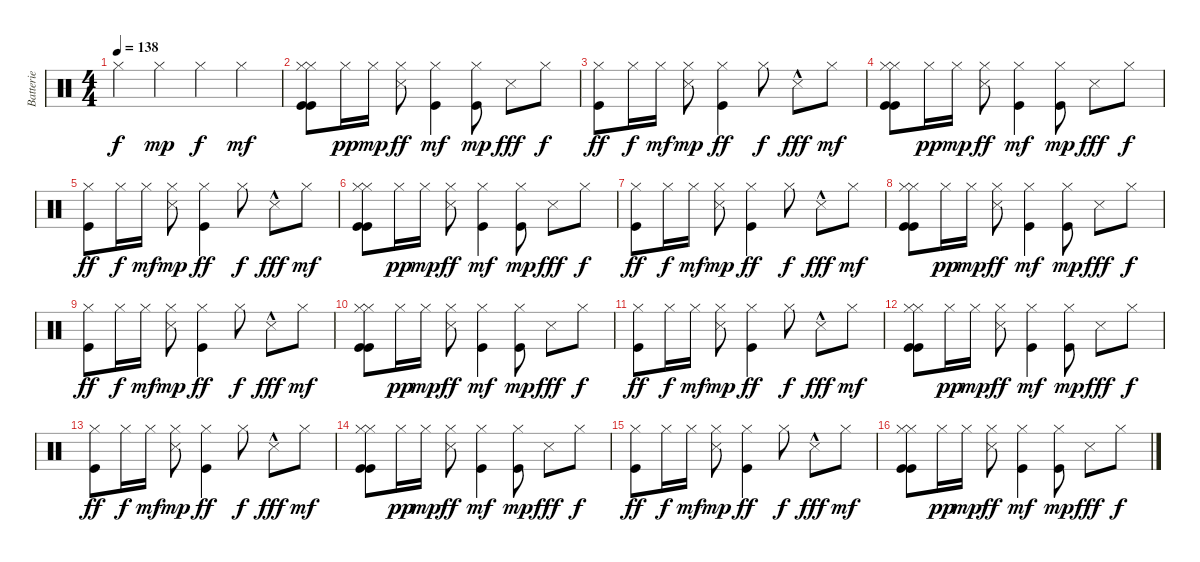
\track ("Batterie" "Batterie") {instrument percussion}
\staff {score}
\articulation defaults
\ts (4 4)
\tempo 138
\clef neutral
\ks c "Hi-Hat (closed)".4{dy f} "Hi-Hat (closed)".4{dy mp} "Hi-Hat (closed)".4{dy f} "Hi-Hat (closed)".4{dy mf}
|
("Kick (hit)" "Kick (hit)" "Hi-Hat (closed)" "Hi-Hat (closed)").8 "Hi-Hat (closed)".16{dy pp} "Hi-Hat (closed)".16{dy mp} ("Snare (side stick) 3" "Hi-Hat (closed)").8{dy ff} ("Kick (hit)" "Hi-Hat (closed)").4{dy mf} ("Kick (hit)" "Hi-Hat (closed)").8{dy mp} "Snare (side stick) 3".8{dy fff} "Hi-Hat (closed)".8{dy f} |
("Kick (hit)" "Hi-Hat (closed)").8{dy ff} "Hi-Hat (closed)".16{dy f} "Hi-Hat (closed)".16{dy mf} ("Snare (side stick) 3" "Hi-Hat (closed)").8{dy mp} ("Kick (hit)" "Hi-Hat (closed)").4{dy ff} "Hi-Hat (closed)".8{dy f} "Snare (side stick) 3"{hac}.8{dy fff} "Hi-Hat (closed)".8{dy mf} |
("Kick (hit)" "Kick (hit)" "Hi-Hat (closed)" "Hi-Hat (closed)").8 "Hi-Hat (closed)".16{dy pp} "Hi-Hat (closed)".16{dy mp} ("Snare (side stick) 3" "Hi-Hat (closed)").8{dy ff} ("Kick (hit)" "Hi-Hat (closed)").4{dy mf} ("Kick (hit)" "Hi-Hat (closed)").8{dy mp} "Snare (side stick) 3".8{dy fff} "Hi-Hat (closed)".8{dy f} |
("Kick (hit)" "Hi-Hat (closed)").8{dy ff} "Hi-Hat (closed)".16{dy f} "Hi-Hat (closed)".16{dy mf} ("Snare (side stick) 3" "Hi-Hat (closed)").8{dy mp} ("Kick (hit)" "Hi-Hat (closed)").4{dy ff} "Hi-Hat (closed)".8{dy f} "Snare (side stick) 3"{hac}.8{dy fff} "Hi-Hat (closed)".8{dy mf} |
("Kick (hit)" "Kick (hit)" "Hi-Hat (closed)" "Hi-Hat (closed)").8 "Hi-Hat (closed)".16{dy pp} "Hi-Hat (closed)".16{dy mp} ("Snare (side stick) 3" "Hi-Hat (closed)").8{dy ff} ("Kick (hit)" "Hi-Hat (closed)").4{dy mf} ("Kick (hit)" "Hi-Hat (closed)").8{dy mp} "Snare (side stick) 3".8{dy fff} "Hi-Hat (closed)".8{dy f} |
("Kick (hit)" "Hi-Hat (closed)").8{dy ff} "Hi-Hat (closed)".16{dy f} "Hi-Hat (closed)".16{dy mf} ("Snare (side stick) 3" "Hi-Hat (closed)").8{dy mp} ("Kick (hit)" "Hi-Hat (closed)").4{dy ff} "Hi-Hat (closed)".8{dy f} "Snare (side stick) 3"{hac}.8{dy fff} "Hi-Hat (closed)".8{dy mf} |
("Kick (hit)" "Kick (hit)" "Hi-Hat (closed)" "Hi-Hat (closed)").8 "Hi-Hat (closed)".16{dy pp} "Hi-Hat (closed)".16{dy mp} ("Snare (side stick) 3" "Hi-Hat (closed)").8{dy ff} ("Kick (hit)" "Hi-Hat (closed)").4{dy mf} ("Kick (hit)" "Hi-Hat (closed)").8{dy mp} "Snare (side stick) 3".8{dy fff} "Hi-Hat (closed)".8{dy f} |
("Kick (hit)" "Hi-Hat (closed)").8{dy ff} "Hi-Hat (closed)".16{dy f} "Hi-Hat (closed)".16{dy mf} ("Snare (side stick) 3" "Hi-Hat (closed)").8{dy mp} ("Kick (hit)" "Hi-Hat (closed)").4{dy ff} "Hi-Hat (closed)".8{dy f} "Snare (side stick) 3"{hac}.8{dy fff} "Hi-Hat (closed)".8{dy mf} |
("Kick (hit)" "Kick (hit)" "Hi-Hat (closed)" "Hi-Hat (closed)").8 "Hi-Hat (closed)".16{dy pp} "Hi-Hat (closed)".16{dy mp} ("Snare (side stick) 3" "Hi-Hat (closed)").8{dy ff} ("Kick (hit)" "Hi-Hat (closed)").4{dy mf} ("Kick (hit)" "Hi-Hat (closed)").8{dy mp} "Snare (side stick) 3".8{dy fff} "Hi-Hat (closed)".8{dy f} |
("Kick (hit)" "Hi-Hat (closed)").8{dy ff} "Hi-Hat (closed)".16{dy f} "Hi-Hat (closed)".16{dy mf} ("Snare (side stick) 3" "Hi-Hat (closed)").8{dy mp} ("Kick (hit)" "Hi-Hat (closed)").4{dy ff} "Hi-Hat (closed)".8{dy f} "Snare (side stick) 3"{hac}.8{dy fff} "Hi-Hat (closed)".8{dy mf} |
("Kick (hit)" "Kick (hit)" "Hi-Hat (closed)" "Hi-Hat (closed)").8 "Hi-Hat (closed)".16{dy pp} "Hi-Hat (closed)".16{dy mp} ("Snare (side stick) 3" "Hi-Hat (closed)").8{dy ff} ("Kick (hit)" "Hi-Hat (closed)").4{dy mf} ("Kick (hit)" "Hi-Hat (closed)").8{dy mp} "Snare (side stick) 3".8{dy fff} "Hi-Hat (closed)".8{dy f} |
("Kick (hit)" "Hi-Hat (closed)").8{dy ff} "Hi-Hat (closed)".16{dy f} "Hi-Hat (closed)".16{dy mf} ("Snare (side stick) 3" "Hi-Hat (closed)").8{dy mp} ("Kick (hit)" "Hi-Hat (closed)").4{dy ff} "Hi-Hat (closed)".8{dy f} "Snare (side stick) 3"{hac}.8{dy fff} "Hi-Hat (closed)".8{dy mf} |
("Kick (hit)" "Kick (hit)" "Hi-Hat (closed)" "Hi-Hat (closed)").8 "Hi-Hat (closed)".16{dy pp} "Hi-Hat (closed)".16{dy mp} ("Snare (side stick) 3" "Hi-Hat (closed)").8{dy ff} ("Kick (hit)" "Hi-Hat (closed)").4{dy mf} ("Kick (hit)" "Hi-Hat (closed)").8{dy mp} "Snare (side stick) 3".8{dy fff} "Hi-Hat (closed)".8{dy f} |
("Kick (hit)" "Hi-Hat (closed)").8{dy ff} "Hi-Hat (closed)".16{dy f} "Hi-Hat (closed)".16{dy mf} ("Snare (side stick) 3" "Hi-Hat (closed)").8{dy mp} ("Kick (hit)" "Hi-Hat (closed)").4{dy ff} "Hi-Hat (closed)".8{dy f} "Snare (side stick) 3"{hac}.8{dy fff} "Hi-Hat (closed)".8{dy mf} |
("Kick (hit)" "Kick (hit)" "Hi-Hat (closed)" "Hi-Hat (closed)").8 "Hi-Hat (closed)".16{dy pp} "Hi-Hat (closed)".16{dy mp} ("Snare (side stick) 3" "Hi-Hat (closed)").8{dy ff} ("Kick (hit)" "Hi-Hat (closed)").4{dy mf} ("Kick (hit)" "Hi-Hat (closed)").8{dy mp} "Snare (side stick) 3".8{dy fff} "Hi-Hat (closed)".8{dy f}
